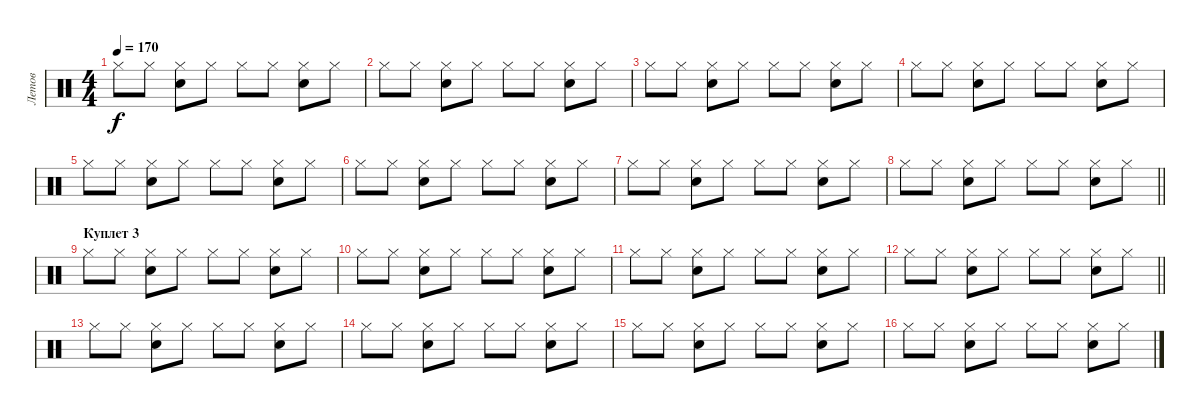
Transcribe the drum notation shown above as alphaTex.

\track ("Летов" "Летов") {instrument percussion}
\staff {score}
\articulation defaults
\ts (4 4)
\tempo 170
\clef neutral
\ks c "Hi-Hat (closed)".8{dy f} "Hi-Hat (closed)".8
("Hi-Hat (closed)" "Electric Snare (hit)").8 "Hi-Hat (closed)".8 "Hi-Hat (closed)".8 "Hi-Hat (closed)".8 ("Hi-Hat (closed)" "Electric Snare (hit)").8 "Hi-Hat (closed)".8 |
"Hi-Hat (closed)".8 "Hi-Hat (closed)".8 ("Hi-Hat (closed)" "Electric Snare (hit)").8 "Hi-Hat (closed)".8 "Hi-Hat (closed)".8 "Hi-Hat (closed)".8 ("Hi-Hat (closed)" "Electric Snare (hit)").8 "Hi-Hat (closed)".8 |
"Hi-Hat (closed)".8 "Hi-Hat (closed)".8 ("Hi-Hat (closed)" "Electric Snare (hit)").8 "Hi-Hat (closed)".8 "Hi-Hat (closed)".8 "Hi-Hat (closed)".8 ("Hi-Hat (closed)" "Electric Snare (hit)").8 "Hi-Hat (closed)".8 |
"Hi-Hat (closed)".8 "Hi-Hat (closed)".8 ("Hi-Hat (closed)" "Electric Snare (hit)").8 "Hi-Hat (closed)".8 "Hi-Hat (closed)".8 "Hi-Hat (closed)".8 ("Hi-Hat (closed)" "Electric Snare (hit)").8 "Hi-Hat (closed)".8 |
"Hi-Hat (closed)".8 "Hi-Hat (closed)".8 ("Hi-Hat (closed)" "Electric Snare (hit)").8 "Hi-Hat (closed)".8 "Hi-Hat (closed)".8 "Hi-Hat (closed)".8 ("Hi-Hat (closed)" "Electric Snare (hit)").8 "Hi-Hat (closed)".8 |
"Hi-Hat (closed)".8 "Hi-Hat (closed)".8 ("Hi-Hat (closed)" "Electric Snare (hit)").8 "Hi-Hat (closed)".8 "Hi-Hat (closed)".8 "Hi-Hat (closed)".8 ("Hi-Hat (closed)" "Electric Snare (hit)").8 "Hi-Hat (closed)".8 |
"Hi-Hat (closed)".8 "Hi-Hat (closed)".8 ("Hi-Hat (closed)" "Electric Snare (hit)").8 "Hi-Hat (closed)".8 "Hi-Hat (closed)".8 "Hi-Hat (closed)".8 ("Hi-Hat (closed)" "Electric Snare (hit)").8 "Hi-Hat (closed)".8 |
\barLineRight lightlight "Hi-Hat (closed)".8 "Hi-Hat (closed)".8
("Hi-Hat (closed)" "Electric Snare (hit)").8 "Hi-Hat (closed)".8 "Hi-Hat (closed)".8 "Hi-Hat (closed)".8 ("Hi-Hat (closed)" "Electric Snare (hit)").8 "Hi-Hat (closed)".8 |
\section ("" "Куплет 3")
"Hi-Hat (closed)".8 "Hi-Hat (closed)".8 ("Hi-Hat (closed)" "Electric Snare (hit)").8 "Hi-Hat (closed)".8 "Hi-Hat (closed)".8 "Hi-Hat (closed)".8 ("Hi-Hat (closed)" "Electric Snare (hit)").8 "Hi-Hat (closed)".8 |
"Hi-Hat (closed)".8 "Hi-Hat (closed)".8 ("Hi-Hat (closed)" "Electric Snare (hit)").8 "Hi-Hat (closed)".8 "Hi-Hat (closed)".8 "Hi-Hat (closed)".8 ("Hi-Hat (closed)" "Electric Snare (hit)").8 "Hi-Hat (closed)".8 |
"Hi-Hat (closed)".8 "Hi-Hat (closed)".8 ("Hi-Hat (closed)" "Electric Snare (hit)").8 "Hi-Hat (closed)".8 "Hi-Hat (closed)".8 "Hi-Hat (closed)".8 ("Hi-Hat (closed)" "Electric Snare (hit)").8 "Hi-Hat (closed)".8 |
\barLineRight lightlight "Hi-Hat (closed)".8 "Hi-Hat (closed)".8
("Hi-Hat (closed)" "Electric Snare (hit)").8 "Hi-Hat (closed)".8 "Hi-Hat (closed)".8 "Hi-Hat (closed)".8 ("Hi-Hat (closed)" "Electric Snare (hit)").8 "Hi-Hat (closed)".8 |
"Hi-Hat (closed)".8 "Hi-Hat (closed)".8 ("Hi-Hat (closed)" "Electric Snare (hit)").8 "Hi-Hat (closed)".8 "Hi-Hat (closed)".8 "Hi-Hat (closed)".8 ("Hi-Hat (closed)" "Electric Snare (hit)").8 "Hi-Hat (closed)".8 |
"Hi-Hat (closed)".8 "Hi-Hat (closed)".8 ("Hi-Hat (closed)" "Electric Snare (hit)").8 "Hi-Hat (closed)".8 "Hi-Hat (closed)".8 "Hi-Hat (closed)".8 ("Hi-Hat (closed)" "Electric Snare (hit)").8 "Hi-Hat (closed)".8 |
"Hi-Hat (closed)".8 "Hi-Hat (closed)".8 ("Hi-Hat (closed)" "Electric Snare (hit)").8 "Hi-Hat (closed)".8 "Hi-Hat (closed)".8 "Hi-Hat (closed)".8 ("Hi-Hat (closed)" "Electric Snare (hit)").8 "Hi-Hat (closed)".8 |
"Hi-Hat (closed)".8 "Hi-Hat (closed)".8 ("Hi-Hat (closed)" "Electric Snare (hit)").8 "Hi-Hat (closed)".8 "Hi-Hat (closed)".8 "Hi-Hat (closed)".8 ("Hi-Hat (closed)" "Electric Snare (hit)").8 "Hi-Hat (closed)".8
